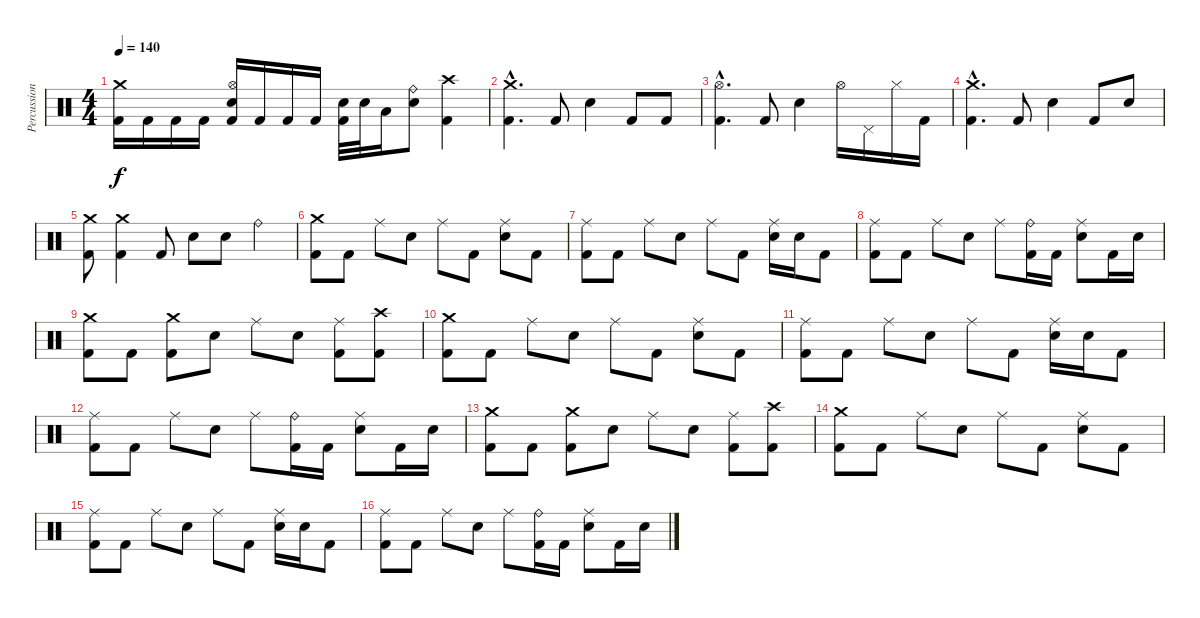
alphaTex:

\track ("Percussion" "Percussion") {instrument percussion}
\staff {score}
\articulation defaults
\ts (4 4)
\tempo 140
\clef neutral
\ks c
("Crash medium (hit)" "Kick (hit) 2").16{dy f} "Kick (hit) 2".16 "Kick (hit) 2".16 "Kick (hit) 2".16 ("Hi-Hat (open)" "Electric Snare (hit)" "Kick (hit) 2").16 "Kick (hit) 2".16 "Kick (hit) 2".16 "Kick (hit) 2".16 ("Electric Snare (hit)" "Kick (hit) 2").32 "Electric Snare (hit)".32 "Low Tom (hit)".16 ("Ride (bell)" "Electric Snare (hit)").8 ("Crash high (hit)" "Kick (hit) 2").4 |
("Crash medium (hit)"{hac} "Kick (hit) 2"{hac}).4{d} "Kick (hit) 2".8 "Electric Snare (hit)".4 "Kick (hit) 2".8 "Kick (hit) 2".8 |
("Hi-Hat (open)"{hac} "Kick (hit) 2"{hac}).4{d} "Kick (hit) 2".8 "Electric Snare (hit)".4 "Hi-Hat (open)".16 "Pedal Hi-Hat (hit)".16 "Hi-Hat (closed)".16 "Kick (hit) 2".16 |
("Crash medium (hit)"{hac} "Kick (hit) 2"{hac}).4{d} "Kick (hit) 2".8 "Electric Snare (hit)".4 "Kick (hit) 2".8 "Electric Snare (hit)".8 |
("Crash medium (hit)" "Kick (hit) 2").8 ("Crash medium (hit)" "Kick (hit) 2").4 "Kick (hit) 2".8 "Electric Snare (hit)".8 "Electric Snare (hit)".8 "Ride (bell)".4 |
("Crash medium (hit)" "Kick (hit) 2").8 "Kick (hit) 2".8 "Ride (middle)".8 "Electric Snare (hit)".8 "Ride (middle)".8 "Kick (hit) 2".8 ("Ride (middle)" "Electric Snare (hit)").8 "Kick (hit) 2".8 |
("Ride (middle)" "Kick (hit) 2").8 "Kick (hit) 2".8 "Ride (middle)".8 "Electric Snare (hit)".8 "Ride (middle)".8 "Kick (hit) 2".8 ("Ride (middle)" "Electric Snare (hit)").16 "Electric Snare (hit)".16 "Kick (hit) 2".8 |
("Ride (middle)" "Kick (hit) 2").8 "Kick (hit) 2".8 "Ride (middle)".8 "Electric Snare (hit)".8 "Ride (middle)".8 ("Ride (bell)" "Kick (hit) 2").16 "Kick (hit) 2".16 ("Ride (middle)" "Electric Snare (hit)").8 "Kick (hit) 2".16 "Electric Snare (hit)".16 |
("Crash medium (hit)" "Kick (hit) 2").8 "Kick (hit) 2".8 ("Crash medium (hit)" "Kick (hit) 2").8 "Electric Snare (hit)".8 "Ride (middle)".8 "Electric Snare (hit)".8 ("Ride (middle)" "Kick (hit) 2").8 ("Crash high (hit)" "Kick (hit) 2").8 |
("Crash medium (hit)" "Kick (hit) 2").8 "Kick (hit) 2".8 "Ride (middle)".8 "Electric Snare (hit)".8 "Ride (middle)".8 "Kick (hit) 2".8 ("Ride (middle)" "Electric Snare (hit)").8 "Kick (hit) 2".8 |
("Ride (middle)" "Kick (hit) 2").8 "Kick (hit) 2".8 "Ride (middle)".8 "Electric Snare (hit)".8 "Ride (middle)".8 "Kick (hit) 2".8 ("Ride (middle)" "Electric Snare (hit)").16 "Electric Snare (hit)".16 "Kick (hit) 2".8 |
("Ride (middle)" "Kick (hit) 2").8 "Kick (hit) 2".8 "Ride (middle)".8 "Electric Snare (hit)".8 "Ride (middle)".8 ("Ride (bell)" "Kick (hit) 2").16 "Kick (hit) 2".16 ("Ride (middle)" "Electric Snare (hit)").8 "Kick (hit) 2".16 "Electric Snare (hit)".16 |
("Crash medium (hit)" "Kick (hit) 2").8 "Kick (hit) 2".8 ("Crash medium (hit)" "Kick (hit) 2").8 "Electric Snare (hit)".8 "Ride (middle)".8 "Electric Snare (hit)".8 ("Ride (middle)" "Kick (hit) 2").8 ("Crash high (hit)" "Kick (hit) 2").8 |
("Crash medium (hit)" "Kick (hit) 2").8 "Kick (hit) 2".8 "Ride (middle)".8 "Electric Snare (hit)".8 "Ride (middle)".8 "Kick (hit) 2".8 ("Ride (middle)" "Electric Snare (hit)").8 "Kick (hit) 2".8 |
("Ride (middle)" "Kick (hit) 2").8 "Kick (hit) 2".8 "Ride (middle)".8 "Electric Snare (hit)".8 "Ride (middle)".8 "Kick (hit) 2".8 ("Ride (middle)" "Electric Snare (hit)").16 "Electric Snare (hit)".16 "Kick (hit) 2".8 |
("Ride (middle)" "Kick (hit) 2").8 "Kick (hit) 2".8 "Ride (middle)".8 "Electric Snare (hit)".8 "Ride (middle)".8 ("Ride (bell)" "Kick (hit) 2").16 "Kick (hit) 2".16 ("Ride (middle)" "Electric Snare (hit)").8 "Kick (hit) 2".16 "Electric Snare (hit)".16
